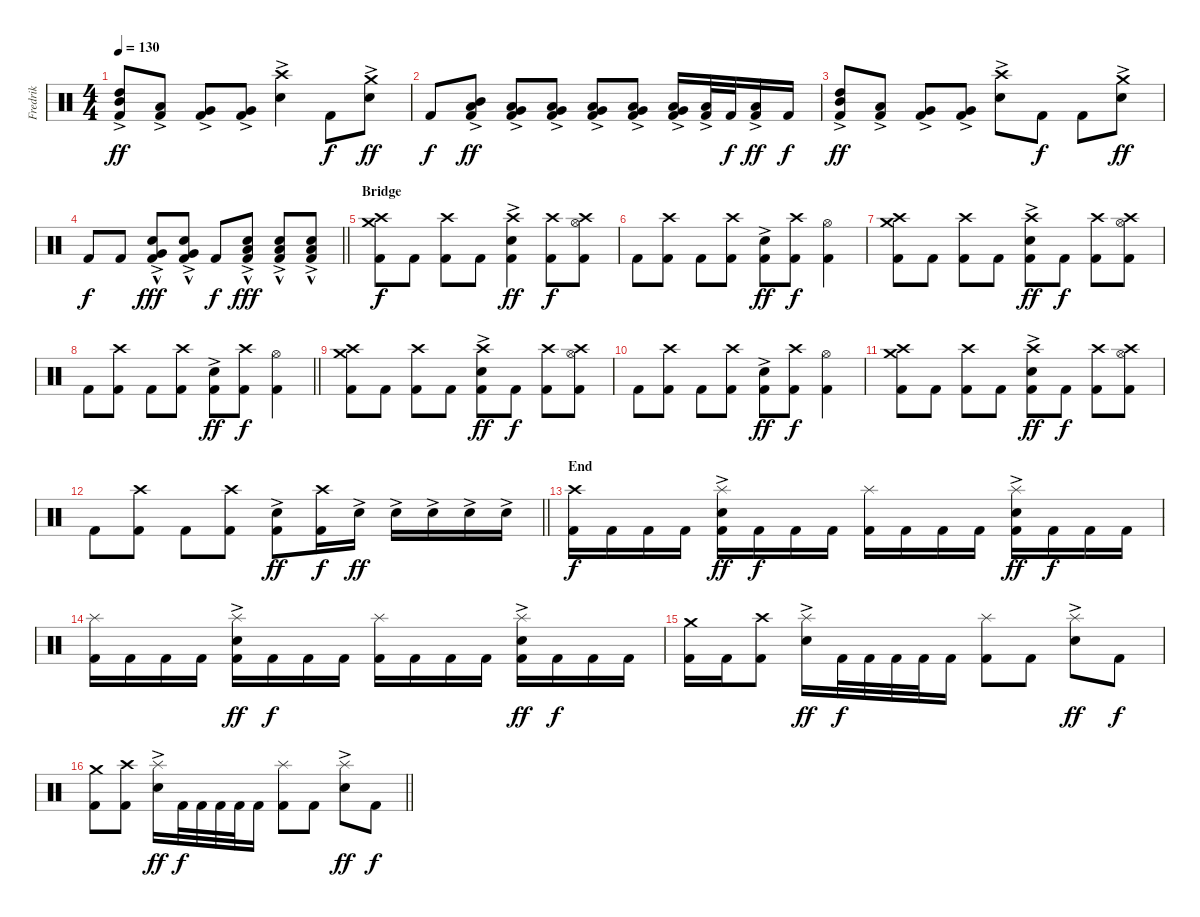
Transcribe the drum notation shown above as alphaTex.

\track ("Fredrik" "Fredrik") {instrument percussion}
\staff {score}
\articulation defaults
\ts (4 4)
\section ("" "")
\tempo 130
\clef neutral
\ks c
("Kick (hit) 2" "High Tom (hit)" "Mid Tom (hit)"{ac}).8{dy ff} ("Kick (hit) 2" "Low Tom (hit)"{ac}).8 ("Kick (hit) 2" "Very Low Tom (hit)"{ac}).8 ("Kick (hit) 2" "Very Low Tom (hit)"{ac}).8 ("Snare (hit) 2"{ac} "Crash high (hit)").4 "Kick (hit) 2".8{dy f} ("Snare (hit) 2"{ac} "Crash medium (hit)").8{dy ff} |
"Kick (hit) 2".8{dy f} ("Kick (hit) 2" "Mid Tom (hit)" "Low Tom (hit)"{ac}).8{dy ff} ("Kick (hit) 2" "Low Tom (hit)" "Very Low Tom (hit)"{ac}).8 ("Kick (hit) 2" "Very Low Tom (hit)" "Low Floor Tom (hit)"{ac}).8 ("Kick (hit) 2" "Very Low Tom (hit)" "Low Floor Tom (hit)"{ac}).8 ("Kick (hit) 2" "Very Low Tom (hit)" "Low Floor Tom (hit)"{ac}).8 ("Kick (hit) 2" "Very Low Tom (hit)" "Low Floor Tom (hit)"{ac}).16 ("Kick (hit) 2" "Low Floor Tom (hit)"{ac}).32 "Kick (hit) 2".32{dy f} ("Kick (hit) 2" "Low Floor Tom (hit)"{ac}).16{dy ff} "Kick (hit) 2".16{dy f} |
("Kick (hit) 2" "High Tom (hit)" "Mid Tom (hit)"{ac}).8{dy ff} ("Kick (hit) 2" "Low Tom (hit)"{ac}).8 ("Kick (hit) 2" "Very Low Tom (hit)"{ac}).8 ("Kick (hit) 2" "Very Low Tom (hit)"{ac}).8 ("Snare (hit) 2"{ac} "Crash high (hit)").8 "Kick (hit) 2".8{dy f} "Kick (hit) 2".8 ("Snare (hit) 2"{ac} "Crash medium (hit)").8{dy ff} |
\barLineRight lightlight "Kick (hit) 2".8{dy f} "Kick (hit) 2".8
("Kick (hit) 2" "Snare (hit) 2"{ac} "Very Low Tom (hit)"{hac}).8{dy fff} ("Kick (hit) 2" "Snare (hit) 2"{ac} "Very Low Tom (hit)"{hac}).8 "Kick (hit) 2".8{dy f} ("Kick (hit) 2" "Snare (hit) 2"{ac} "Low Floor Tom (hit)"{hac}).8{dy fff} ("Kick (hit) 2" "Snare (hit) 2"{ac} "Low Floor Tom (hit)"{hac}).8 ("Kick (hit) 2" "Snare (hit) 2"{ac} "Low Floor Tom (hit)"{hac}).8 |
\section ("" "Bridge")
("Kick (hit) 2" "Crash medium (hit)" "Crash high (hit)").8{dy f} "Kick (hit) 2".8 ("Kick (hit) 2" "Crash high (hit)").8 "Kick (hit) 2".8 ("Kick (hit) 2" "Snare (hit) 2"{ac} "Crash high (hit)").4{dy ff} ("Kick (hit) 2" "Crash high (hit)").8{dy f} ("Kick (hit) 2" "Hi-Hat (open)" "Crash high (hit)").8 |
"Kick (hit) 2".8 ("Kick (hit) 2" "Crash high (hit)").8 "Kick (hit) 2".8 ("Kick (hit) 2" "Crash high (hit)").8 ("Kick (hit) 2" "Snare (hit) 2"{ac}).8{dy ff} ("Kick (hit) 2" "Crash high (hit)").8{dy f} ("Kick (hit) 2" "Hi-Hat (open)").4 |
("Kick (hit) 2" "Crash medium (hit)" "Crash high (hit)").8 "Kick (hit) 2".8 ("Kick (hit) 2" "Crash high (hit)").8 "Kick (hit) 2".8 ("Kick (hit) 2" "Snare (hit) 2"{ac} "Crash high (hit)").8{dy ff} "Kick (hit) 2".8{dy f} ("Kick (hit) 2" "Crash high (hit)").8 ("Kick (hit) 2" "Hi-Hat (open)" "Crash high (hit)").8 |
\barLineRight lightlight "Kick (hit) 2".8
("Kick (hit) 2" "Crash high (hit)").8 "Kick (hit) 2".8 ("Kick (hit) 2" "Crash high (hit)").8 ("Kick (hit) 2" "Snare (hit) 2"{ac}).8{dy ff} ("Kick (hit) 2" "Crash high (hit)").8{dy f} ("Kick (hit) 2" "Hi-Hat (open)").4 |
\section ("" "")
("Kick (hit) 2" "Crash medium (hit)" "Crash high (hit)").8 "Kick (hit) 2".8 ("Kick (hit) 2" "Crash high (hit)").8 "Kick (hit) 2".8 ("Kick (hit) 2" "Snare (hit) 2"{ac} "Crash high (hit)").8{dy ff} "Kick (hit) 2".8{dy f} ("Kick (hit) 2" "Crash high (hit)").8 ("Kick (hit) 2" "Hi-Hat (open)" "Crash high (hit)").8 |
"Kick (hit) 2".8 ("Kick (hit) 2" "Crash high (hit)").8 "Kick (hit) 2".8 ("Kick (hit) 2" "Crash high (hit)").8 ("Kick (hit) 2" "Snare (hit) 2"{ac}).8{dy ff} ("Kick (hit) 2" "Crash high (hit)").8{dy f} ("Kick (hit) 2" "Hi-Hat (open)").4 |
("Kick (hit) 2" "Crash medium (hit)" "Crash high (hit)").8 "Kick (hit) 2".8 ("Kick (hit) 2" "Crash high (hit)").8 "Kick (hit) 2".8 ("Kick (hit) 2" "Snare (hit) 2"{ac} "Crash high (hit)").8{dy ff} "Kick (hit) 2".8{dy f} ("Kick (hit) 2" "Crash high (hit)").8 ("Kick (hit) 2" "Hi-Hat (open)" "Crash high (hit)").8 |
\barLineRight lightlight "Kick (hit) 2".8
("Kick (hit) 2" "Crash high (hit)").8 "Kick (hit) 2".8 ("Kick (hit) 2" "Crash high (hit)").8 ("Kick (hit) 2" "Snare (hit) 2"{ac}).8{dy ff} ("Kick (hit) 2" "Crash high (hit)").16{dy f} "Snare (hit) 2"{ac}.16{dy ff} "Snare (hit) 2"{ac}.16 "Snare (hit) 2"{ac}.16 "Snare (hit) 2"{ac}.16 "Snare (hit) 2"{ac}.16 |
\section ("" "End")
("Kick (hit) 2" "Crash high (hit)").16{dy f} "Kick (hit) 2".16 "Kick (hit) 2".16 "Kick (hit) 2".16 ("Kick (hit) 2" "Snare (hit) 2"{ac} "Splash (hit)").16{dy ff} "Kick (hit) 2".16{dy f} "Kick (hit) 2".16 "Kick (hit) 2".16 ("Kick (hit) 2" "Splash (hit)").16 "Kick (hit) 2".16 "Kick (hit) 2".16 "Kick (hit) 2".16 ("Kick (hit) 2" "Snare (hit) 2"{ac} "Splash (hit)").16{dy ff} "Kick (hit) 2".16{dy f} "Kick (hit) 2".16 "Kick (hit) 2".16 |
("Kick (hit) 2" "Splash (hit)").16 "Kick (hit) 2".16 "Kick (hit) 2".16 "Kick (hit) 2".16 ("Kick (hit) 2" "Snare (hit) 2"{ac} "Splash (hit)").16{dy ff} "Kick (hit) 2".16{dy f} "Kick (hit) 2".16 "Kick (hit) 2".16 ("Kick (hit) 2" "Splash (hit)").16 "Kick (hit) 2".16 "Kick (hit) 2".16 "Kick (hit) 2".16 ("Kick (hit) 2" "Snare (hit) 2"{ac} "Splash (hit)").16{dy ff} "Kick (hit) 2".16{dy f} "Kick (hit) 2".16 "Kick (hit) 2".16 |
("Kick (hit) 2" "Crash medium (hit)").16 "Kick (hit) 2".16 ("Kick (hit) 2" "Crash high (hit)").8 ("Snare (hit) 2"{ac} "Splash (hit)").16{dy ff} "Kick (hit) 2".32{dy f} "Kick (hit) 2".32 "Kick (hit) 2".32 "Kick (hit) 2".32 "Kick (hit) 2".16 ("Kick (hit) 2" "Splash (hit)").8 "Kick (hit) 2".8 ("Snare (hit) 2"{ac} "Splash (hit)").8{dy ff} "Kick (hit) 2".8{dy f} |
\barLineRight lightlight
("Kick (hit) 2" "Crash medium (hit)").8 ("Kick (hit) 2" "Crash high (hit)").8 ("Snare (hit) 2"{ac} "Splash (hit)").16{dy ff} "Kick (hit) 2".32{dy f} "Kick (hit) 2".32 "Kick (hit) 2".32 "Kick (hit) 2".32 "Kick (hit) 2".16 ("Kick (hit) 2" "Splash (hit)").8 "Kick (hit) 2".8 ("Snare (hit) 2"{ac} "Splash (hit)").8{dy ff} "Kick (hit) 2".8{dy f}
